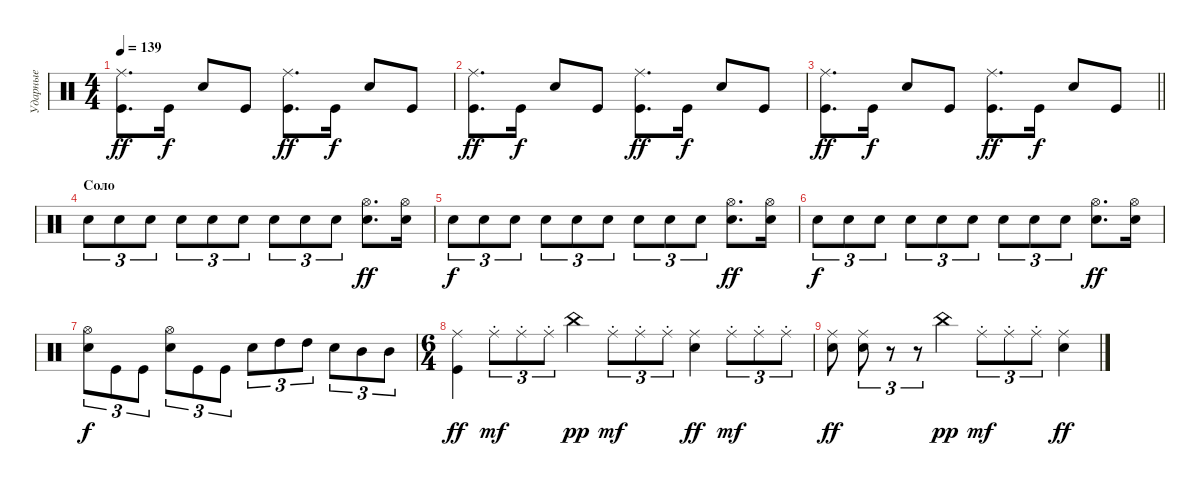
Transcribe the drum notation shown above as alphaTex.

\track ("Ударные" "Ударные") {instrument percussion}
\staff {score}
\articulation defaults
\ts (4 4)
\tempo 139
\clef neutral
\ks c
("Kick (hit)" "Ride (middle)").8{d dy ff} "Kick (hit)".16{dy f} "Snare (hit) 2".8 "Kick (hit)".8 ("Kick (hit)" "Ride (middle)").8{d dy ff} "Kick (hit)".16{dy f} "Snare (hit) 2".8 "Kick (hit)".8 |
("Kick (hit)" "Ride (middle)").8{d dy ff} "Kick (hit)".16{dy f} "Snare (hit) 2".8 "Kick (hit)".8 ("Kick (hit)" "Ride (middle)").8{d dy ff} "Kick (hit)".16{dy f} "Snare (hit) 2".8 "Kick (hit)".8 |
\barLineRight lightlight
("Kick (hit)" "Ride (middle)").8{d dy ff} "Kick (hit)".16{dy f} "Snare (hit) 2".8 "Kick (hit)".8 ("Kick (hit)" "Ride (middle)").8{d dy ff} "Kick (hit)".16{dy f} "Snare (hit) 2".8 "Kick (hit)".8 |
\section ("" "Соло")
"Snare (hit) 2".8{tu (3 2)} "Snare (hit) 2".8{tu (3 2)} "Snare (hit) 2".8{tu (3 2)} "Snare (hit) 2".8{tu (3 2)} "Snare (hit) 2".8{tu (3 2)} "Snare (hit) 2".8{tu (3 2)} "Snare (hit) 2".8{tu (3 2)} "Snare (hit) 2".8{tu (3 2)} "Snare (hit) 2".8{tu (3 2)} ("Snare (hit) 2" "Hi-Hat (open)").8{d dy ff} ("Snare (hit) 2" "Hi-Hat (open)").16 |
"Snare (hit) 2".8{tu (3 2) dy f} "Snare (hit) 2".8{tu (3 2)} "Snare (hit) 2".8{tu (3 2)} "Snare (hit) 2".8{tu (3 2)} "Snare (hit) 2".8{tu (3 2)} "Snare (hit) 2".8{tu (3 2)} "Snare (hit) 2".8{tu (3 2)} "Snare (hit) 2".8{tu (3 2)} "Snare (hit) 2".8{tu (3 2)} ("Snare (hit) 2" "Hi-Hat (open)").8{d dy ff} ("Snare (hit) 2" "Hi-Hat (open)").16 |
"Snare (hit) 2".8{tu (3 2) dy f} "Snare (hit) 2".8{tu (3 2)} "Snare (hit) 2".8{tu (3 2)} "Snare (hit) 2".8{tu (3 2)} "Snare (hit) 2".8{tu (3 2)} "Snare (hit) 2".8{tu (3 2)} "Snare (hit) 2".8{tu (3 2)} "Snare (hit) 2".8{tu (3 2)} "Snare (hit) 2".8{tu (3 2)} ("Snare (hit) 2" "Hi-Hat (open)").8{d dy ff} ("Snare (hit) 2" "Hi-Hat (open)").16 |
("Snare (hit) 2" "Hi-Hat (open)").8{tu (3 2) dy f} "Kick (hit)".8{tu (3 2)} "Kick (hit)".8{tu (3 2)} ("Snare (hit) 2" "Hi-Hat (open)").8{tu (3 2)} "Kick (hit)".8{tu (3 2)} "Kick (hit)".8{tu (3 2)} "Snare (hit) 2".8{tu (3 2)} "High Tom (hit)".8{tu (3 2)} "High Tom (hit)".8{tu (3 2)} "Snare (hit) 2".8{tu (3 2)} "Mid Tom (hit)".8{tu (3 2)} "Mid Tom (hit)".8{tu (3 2)} |
\ts (6 4)
("Ride (middle)" "Kick (hit)").4{dy ff} "Ride (middle)"{st}.8{tu (3 2) dy mf} "Ride (middle)"{st}.8{tu (3 2)} "Ride (middle)"{st}.8{tu (3 2)} "China (hit)".4{dy pp} "Ride (middle)"{st}.8{tu (3 2) dy mf} "Ride (middle)"{st}.8{tu (3 2)} "Ride (middle)"{st}.8{tu (3 2)} ("Ride (middle)" "Electric Snare (hit)").4{dy ff} "Ride (middle)"{st}.8{tu (3 2) dy mf} "Ride (middle)"{st}.8{tu (3 2)} "Ride (middle)"{st}.8{tu (3 2)} |
("Ride (middle)" "Electric Snare (hit)").8{dy ff} ("Ride (middle)" "Electric Snare (hit)").8{tu (3 2)} r.8{tu (3 2)} r.8{tu (3 2)} "China (hit)".4{dy pp} "Ride (middle)"{st}.8{tu (3 2) dy mf} "Ride (middle)"{st}.8{tu (3 2)} "Ride (middle)"{st}.8{tu (3 2)} ("Ride (middle)" "Electric Snare (hit)").4{dy ff}
